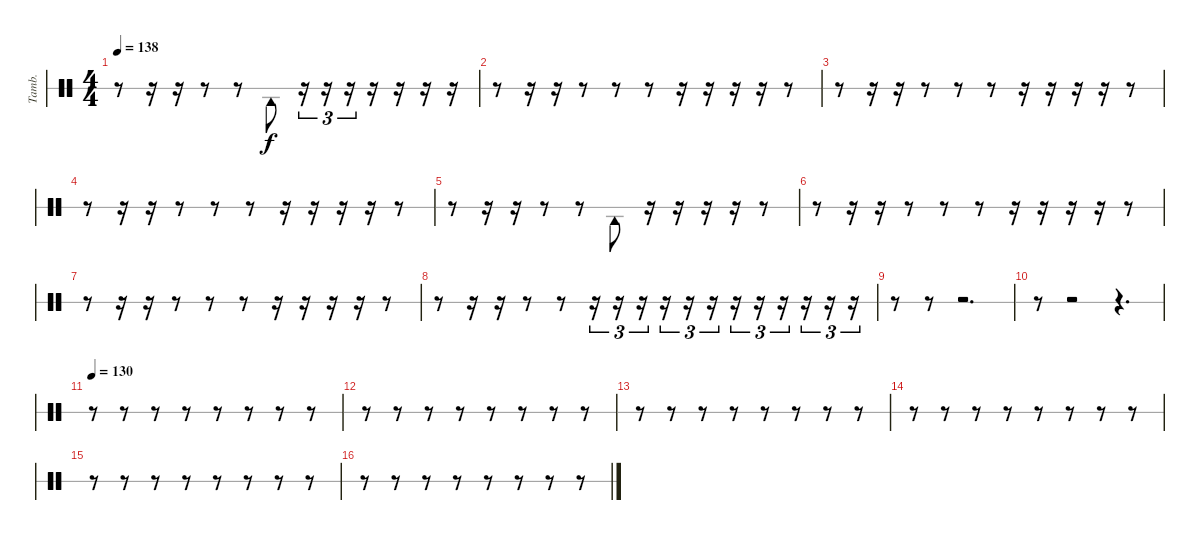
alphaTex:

\bracketExtendMode groupsimilarinstruments
\otherSystemsTrackNameOrientation horizontal
\track ("Tambourine" "Tamb.") {instrument percussion}
\staff {score 1}
\articulation defaults
\ts (4 4)
\tempo 138
\clef neutral
\ks c
r.8{dy f beam Down} r.16{beam Down} r.16{beam Down} r.8{beam Down} r.8{beam Down} "Tambourine (hit)".8{beam Down} r.16{tu (3 2) beam Down} r.16{tu (3 2) beam Down} r.16{tu (3 2) beam Down} r.16{beam Down} r.16{beam Down} r.16{beam Down} r.16{beam Down} |
r.8{beam Down} r.16{beam Down} r.16{beam Down} r.8{beam Down} r.8{beam Down} r.8{beam Down} r.16{beam Down} r.16{beam Down} r.16{beam Down} r.16{beam Down} r.8{beam Down} |
r.8{beam Down} r.16{beam Down} r.16{beam Down} r.8{beam Down} r.8{beam Down} r.8{beam Down} r.16{beam Down} r.16{beam Down} r.16{beam Down} r.16{beam Down} r.8{beam Down} |
r.8{beam Down} r.16{beam Down} r.16{beam Down} r.8{beam Down} r.8{beam Down} r.8{beam Down} r.16{beam Down} r.16{beam Down} r.16{beam Down} r.16{beam Down} r.8{beam Down} |
r.8{beam Down} r.16{beam Down} r.16{beam Down} r.8{beam Down} r.8{beam Down} "Tambourine (hit)".8{beam Down} r.16{beam Down} r.16{beam Down} r.16{beam Down} r.16{beam Down} r.8{beam Down} |
r.8{beam Down} r.16{beam Down} r.16{beam Down} r.8{beam Down} r.8{beam Down} r.8{beam Down} r.16{beam Down} r.16{beam Down} r.16{beam Down} r.16{beam Down} r.8{beam Down} |
r.8{beam Down} r.16{beam Down} r.16{beam Down} r.8{beam Down} r.8{beam Down} r.8{beam Down} r.16{beam Down} r.16{beam Down} r.16{beam Down} r.16{beam Down} r.8{beam Down} |
r.8{beam Down} r.16{beam Down} r.16{beam Down} r.8{beam Down} r.8{beam Down} r.16{tu (3 2) beam Down} r.16{tu (3 2) beam Down} r.16{tu (3 2) beam Down} r.16{tu (3 2) beam Down} r.16{tu (3 2) beam Down} r.16{tu (3 2) beam Down} r.16{tu (3 2) beam Down} r.16{tu (3 2) beam Down} r.16{tu (3 2) beam Down} r.16{tu (3 2) beam Down} r.16{tu (3 2) beam Down} r.16{tu (3 2) beam Down} |
r.8{beam Down} r.8{beam Down} r.2{d beam Down} |
r.8{beam Down} r.2{beam Down} r.4{d beam Down} |
\tempo 130
r.8{beam Down} r.8{beam Down} r.8{beam Down} r.8{beam Down} r.8{beam Down} r.8{beam Down} r.8{beam Down} r.8{beam Down} |
r.8{beam Down} r.8{beam Down} r.8{beam Down} r.8{beam Down} r.8{beam Down} r.8{beam Down} r.8{beam Down} r.8{beam Down} |
r.8{beam Down} r.8{beam Down} r.8{beam Down} r.8{beam Down} r.8{beam Down} r.8{beam Down} r.8{beam Down} r.8{beam Down} |
r.8{beam Down} r.8{beam Down} r.8{beam Down} r.8{beam Down} r.8{beam Down} r.8{beam Down} r.8{beam Down} r.8{beam Down} |
r.8{beam Down} r.8{beam Down} r.8{beam Down} r.8{beam Down} r.8{beam Down} r.8{beam Down} r.8{beam Down} r.8{beam Down} |
r.8{beam Down} r.8{beam Down} r.8{beam Down} r.8{beam Down} r.8{beam Down} r.8{beam Down} r.8{beam Down} r.8{beam Down}
